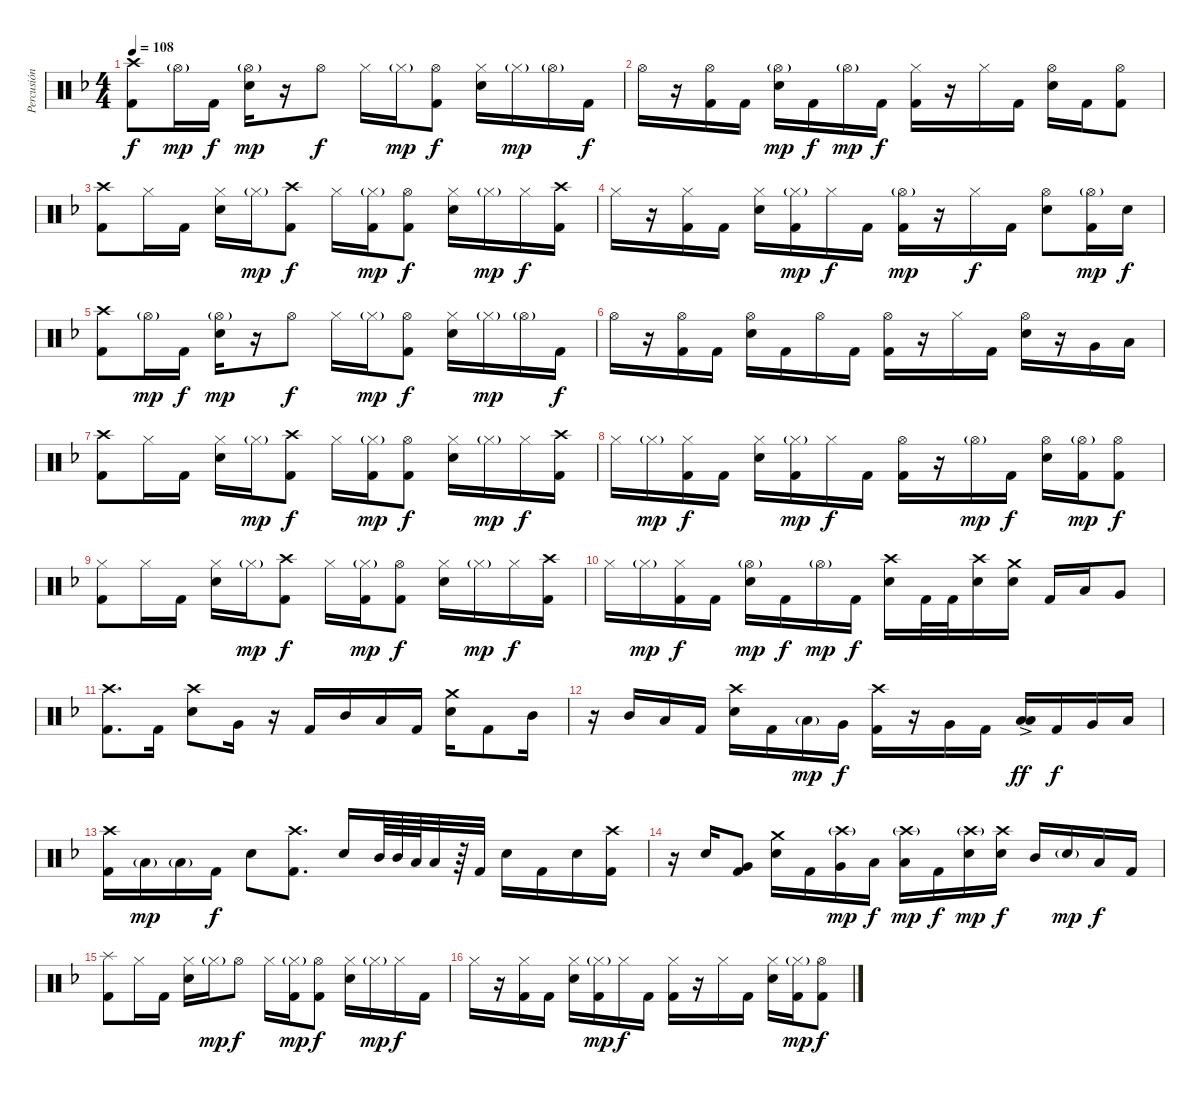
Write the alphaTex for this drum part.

\track ("Percusión" "Percusión") {instrument percussion}
\staff {score}
\articulation defaults
\ts (4 4)
\tempo 108
\clef neutral
\ks f
("Crash high (hit)" "Kick (hit) 2").8{dy f} "Hi-Hat (open)"{g}.16{dy mp} "Kick (hit) 2".16{dy f} ("Hi-Hat (open)"{g} "Snare (hit) 2").16{dy mp} r.16 "Hi-Hat (open)".8{dy f} "Hi-Hat (closed)".16 "Hi-Hat (closed)"{g}.16{dy mp} ("Hi-Hat (open)" "Kick (hit) 2").8{dy f} ("Hi-Hat (closed)" "Snare (hit) 2").16 "Hi-Hat (closed)"{g}.16{dy mp} "Hi-Hat (open)"{g}.16 "Kick (hit) 2".16{dy f} |
"Hi-Hat (open)".16 r.16 ("Hi-Hat (open)" "Kick (hit) 2").16 "Kick (hit) 2".16 ("Hi-Hat (open)"{g} "Snare (hit) 2").16{dy mp} "Kick (hit) 2".16{dy f} "Hi-Hat (open)"{g}.16{dy mp} "Kick (hit) 2".16{dy f} ("Hi-Hat (closed)" "Kick (hit) 2").16 r.16 "Hi-Hat (closed)".16 "Kick (hit) 2".16 ("Hi-Hat (open)" "Snare (hit) 2").16 "Kick (hit) 2".16 ("Hi-Hat (open)" "Kick (hit) 2").8 |
("Crash high (hit)" "Kick (hit) 2").8 "Hi-Hat (closed)".16 "Kick (hit) 2".16 ("Hi-Hat (closed)" "Snare (hit) 2").16 "Hi-Hat (closed)"{g}.16{dy mp} ("Crash high (hit)" "Kick (hit) 2").8{dy f} "Hi-Hat (closed)".16 ("Hi-Hat (closed)"{g} "Kick (hit) 2").16{dy mp} ("Hi-Hat (open)" "Kick (hit) 2").8{dy f} ("Hi-Hat (closed)" "Snare (hit) 2").16 "Hi-Hat (closed)"{g}.16{dy mp} "Hi-Hat (closed)".16{dy f} ("Crash high (hit)" "Kick (hit) 2").16 |
"Hi-Hat (closed)".16 r.16 ("Hi-Hat (closed)" "Kick (hit) 2").16 "Kick (hit) 2".16 ("Hi-Hat (closed)" "Snare (hit) 2").16 ("Hi-Hat (closed)"{g} "Kick (hit) 2").16{dy mp} "Hi-Hat (closed)".16{dy f} "Kick (hit) 2".16 ("Hi-Hat (open)"{g} "Kick (hit) 2").16{dy mp} r.16 "Hi-Hat (closed)".16{dy f} "Kick (hit) 2".16 ("Hi-Hat (open)" "Snare (hit) 2").8 ("Hi-Hat (open)"{g} "Kick (hit) 2").16{dy mp} "Snare (hit) 2".16{dy f} |
("Crash high (hit)" "Kick (hit) 2").8 "Hi-Hat (open)"{g}.16{dy mp} "Kick (hit) 2".16{dy f} ("Hi-Hat (open)"{g} "Snare (hit) 2").16{dy mp} r.16 "Hi-Hat (open)".8{dy f} "Hi-Hat (closed)".16 "Hi-Hat (closed)"{g}.16{dy mp} ("Hi-Hat (open)" "Kick (hit) 2").8{dy f} ("Hi-Hat (closed)" "Snare (hit) 2").16 "Hi-Hat (closed)"{g}.16{dy mp} "Hi-Hat (open)"{g}.16 "Kick (hit) 2".16{dy f} |
"Hi-Hat (open)".16 r.16 ("Hi-Hat (open)" "Kick (hit) 2").16 "Kick (hit) 2".16 ("Hi-Hat (open)" "Snare (hit) 2").16 "Kick (hit) 2".16 "Hi-Hat (open)".16 "Kick (hit) 2".16 ("Hi-Hat (open)" "Kick (hit) 2").16 r.16 "Hi-Hat (closed)".16 "Kick (hit) 2".16 ("Hi-Hat (open)" "Snare (hit) 2").16 r.16 "Very Low Tom (hit)".16 "Low Floor Tom (hit)".16 |
("Crash high (hit)" "Kick (hit) 2").8 "Hi-Hat (closed)".16 "Kick (hit) 2".16 ("Hi-Hat (closed)" "Snare (hit) 2").16 "Hi-Hat (closed)"{g}.16{dy mp} ("Crash high (hit)" "Kick (hit) 2").8{dy f} "Hi-Hat (closed)".16 ("Hi-Hat (closed)"{g} "Kick (hit) 2").16{dy mp} ("Hi-Hat (open)" "Kick (hit) 2").8{dy f} ("Hi-Hat (closed)" "Snare (hit) 2").16 "Hi-Hat (closed)"{g}.16{dy mp} "Hi-Hat (closed)".16{dy f} ("Crash high (hit)" "Kick (hit) 2").16 |
"Hi-Hat (closed)".16 "Hi-Hat (closed)"{g}.16{dy mp} ("Hi-Hat (closed)" "Kick (hit) 2").16{dy f} "Kick (hit) 2".16 ("Hi-Hat (closed)" "Snare (hit) 2").16 ("Hi-Hat (closed)"{g} "Kick (hit) 2").16{dy mp} "Hi-Hat (closed)".16{dy f} "Kick (hit) 2".16 ("Hi-Hat (open)" "Kick (hit) 2").16 r.16 "Hi-Hat (open)"{g}.16{dy mp} "Kick (hit) 2".16{dy f} ("Hi-Hat (open)" "Snare (hit) 2").16 ("Hi-Hat (open)"{g} "Kick (hit) 2").16{dy mp} ("Hi-Hat (open)" "Kick (hit) 2").8{dy f} |
("Hi-Hat (closed)" "Kick (hit) 2").8 "Hi-Hat (closed)".16 "Kick (hit) 2".16 ("Hi-Hat (closed)" "Snare (hit) 2").16 "Hi-Hat (closed)"{g}.16{dy mp} ("Crash high (hit)" "Kick (hit) 2").8{dy f} "Hi-Hat (closed)".16 ("Hi-Hat (closed)"{g} "Kick (hit) 2").16{dy mp} ("Hi-Hat (open)" "Kick (hit) 2").8{dy f} ("Hi-Hat (closed)" "Snare (hit) 2").16 "Hi-Hat (closed)"{g}.16{dy mp} "Hi-Hat (closed)".16{dy f} ("Crash high (hit)" "Kick (hit) 2").16 |
"Hi-Hat (closed)".16 "Hi-Hat (closed)"{g}.16{dy mp} ("Hi-Hat (closed)" "Kick (hit) 2").16{dy f} "Kick (hit) 2".16 ("Hi-Hat (open)"{g} "Snare (hit) 2").16{dy mp} "Kick (hit) 2".16{dy f} "Hi-Hat (open)"{g}.16{dy mp} "Kick (hit) 2".16{dy f} ("Crash high (hit)" "Snare (hit) 2").16 "Kick (hit) 2".32 "Kick (hit) 2".32 ("Crash high (hit)" "Snare (hit) 2").16 ("Crash medium (hit)" "Snare (hit) 2").16 "Kick (hit) 2".16 "Low Tom (hit)".16 "Very Low Tom (hit)".8 |
("Crash high (hit)" "Kick (hit) 2").8{d} "Kick (hit) 2".16 ("Crash high (hit)" "Snare (hit) 2").8 "Very Low Tom (hit)".16 r.16 "Kick (hit) 2".16 "Mid Tom (hit)".16 "Low Tom (hit)".16 "Kick (hit) 2".16 ("Crash medium (hit)" "Snare (hit) 2").16 "Kick (hit) 2".8 "Mid Tom (hit)".16 |
r.16 "Mid Tom (hit)".16 "Low Tom (hit)".16 "Kick (hit) 2".16 ("Crash high (hit)" "Snare (hit) 2").16 "Kick (hit) 2".16 "Low Tom (hit)"{g}.16{dy mp} "Very Low Tom (hit)".16{dy f} ("Crash high (hit)" "Kick (hit) 2").16 r.16 "Very Low Tom (hit)".16 "Kick (hit) 2".16 ("Low Tom (hit)" "Low Floor Tom (hit)"{ac}).16{dy ff} "Kick (hit) 2".16{dy f} "Very Low Tom (hit)".16 "Low Floor Tom (hit)".16 |
("Crash high (hit)" "Kick (hit) 2").16 "Low Tom (hit)"{g}.16{dy mp} "Low Tom (hit)"{g}.16 "Kick (hit) 2".16{dy f} "Snare (hit) 2".8 ("Crash high (hit)" "Kick (hit) 2").8{d} "Snare (hit) 2".16 "Mid Tom (hit)".64 "Mid Tom (hit)".64 "Low Tom (hit)".64 "Low Tom (hit)".32 r.64 "Kick (hit) 2".32 "Snare (hit) 2".16 "Kick (hit) 2".16 "Snare (hit) 2".16 ("Crash high (hit)" "Kick (hit) 2").16 |
r.16 "Snare (hit) 2".16 ("Very Low Tom (hit)" "Kick (hit) 2").8 ("Crash medium (hit)" "Snare (hit) 2").16 "Kick (hit) 2".16 ("Crash high (hit)"{g} "Very Low Tom (hit)").16{dy mp} "Low Tom (hit)".16{dy f} ("Crash high (hit)"{g} "Low Floor Tom (hit)").16{dy mp} "Kick (hit) 2".16{dy f} ("Crash high (hit)"{g} "Snare (hit) 2").16{dy mp} ("Crash high (hit)" "Snare (hit) 2").16{dy f} "Mid Tom (hit)".16 "Snare (hit) 2"{g}.16{dy mp} "Low Tom (hit)".16{dy f} "Kick (hit) 2".16 |
("Splash (hit)" "Kick (hit) 2").8 "Hi-Hat (closed)".16 "Kick (hit) 2".16 ("Hi-Hat (closed)" "Snare (hit) 2").16 "Hi-Hat (closed)"{g}.16{dy mp} "Hi-Hat (open)".8{dy f} "Hi-Hat (closed)".16 ("Hi-Hat (closed)"{g} "Kick (hit) 2").16{dy mp} ("Hi-Hat (open)" "Kick (hit) 2").8{dy f} ("Hi-Hat (closed)" "Snare (hit) 2").16 "Hi-Hat (closed)"{g}.16{dy mp} "Hi-Hat (closed)".16{dy f} "Kick (hit) 2".16 |
"Hi-Hat (closed)".16 r.16 ("Hi-Hat (closed)" "Kick (hit) 2").16 "Kick (hit) 2".16 ("Hi-Hat (closed)" "Snare (hit) 2").16 ("Hi-Hat (closed)"{g} "Kick (hit) 2").16{dy mp} "Hi-Hat (closed)".16{dy f} "Kick (hit) 2".16 ("Hi-Hat (closed)" "Kick (hit) 2").16 r.16 "Hi-Hat (closed)".16 "Kick (hit) 2".16 ("Hi-Hat (closed)" "Snare (hit) 2").16 ("Hi-Hat (closed)"{g} "Kick (hit) 2").16{dy mp} ("Hi-Hat (open)" "Kick (hit) 2").8{dy f}
